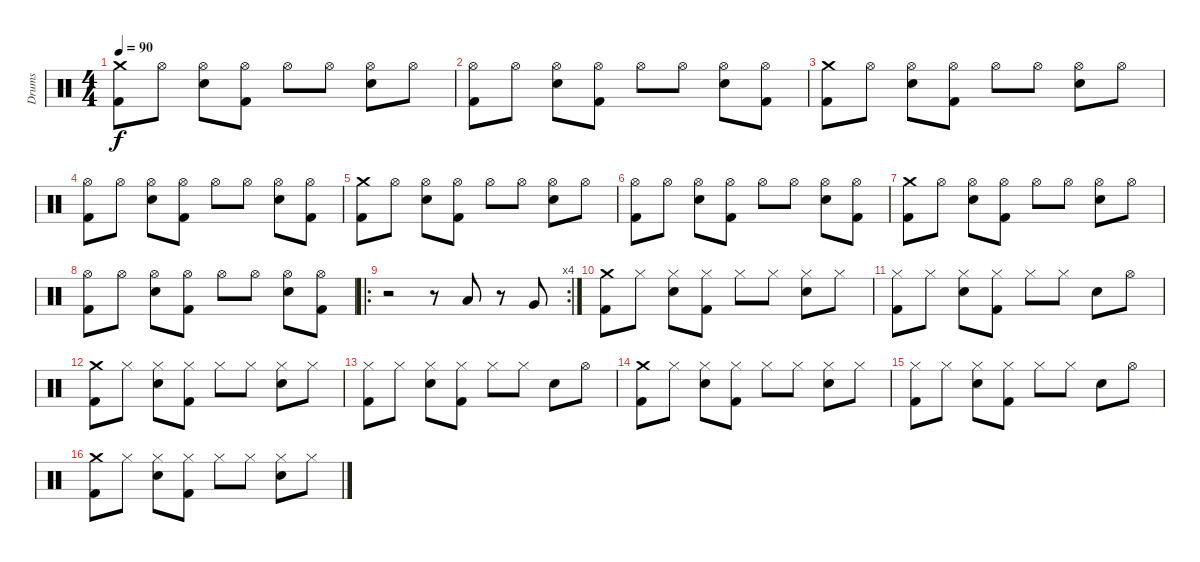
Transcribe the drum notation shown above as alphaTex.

\track ("Drums" "Drums") {instrument percussion}
\staff {score}
\articulation defaults
\ts (4 4)
\tempo 90
\clef neutral
\ks c
("Crash medium (hit)" "Kick (hit) 2").8{dy f} "Hi-Hat (open)".8 ("Hi-Hat (open)" "Snare (hit) 2").8 ("Hi-Hat (open)" "Kick (hit) 2").8 "Hi-Hat (open)".8 "Hi-Hat (open)".8 ("Hi-Hat (open)" "Snare (hit) 2").8 "Hi-Hat (open)".8 |
("Hi-Hat (open)" "Kick (hit) 2").8 "Hi-Hat (open)".8 ("Hi-Hat (open)" "Snare (hit) 2").8 ("Hi-Hat (open)" "Kick (hit) 2").8 "Hi-Hat (open)".8 "Hi-Hat (open)".8 ("Hi-Hat (open)" "Snare (hit) 2").8 ("Hi-Hat (open)" "Kick (hit) 2").8 |
("Crash medium (hit)" "Kick (hit) 2").8 "Hi-Hat (open)".8 ("Hi-Hat (open)" "Snare (hit) 2").8 ("Hi-Hat (open)" "Kick (hit) 2").8 "Hi-Hat (open)".8 "Hi-Hat (open)".8 ("Hi-Hat (open)" "Snare (hit) 2").8 "Hi-Hat (open)".8 |
("Hi-Hat (open)" "Kick (hit) 2").8 "Hi-Hat (open)".8 ("Hi-Hat (open)" "Snare (hit) 2").8 ("Hi-Hat (open)" "Kick (hit) 2").8 "Hi-Hat (open)".8 "Hi-Hat (open)".8 ("Hi-Hat (open)" "Snare (hit) 2").8 ("Hi-Hat (open)" "Kick (hit) 2").8 |
("Crash medium (hit)" "Kick (hit) 2").8 "Hi-Hat (open)".8 ("Hi-Hat (open)" "Snare (hit) 2").8 ("Hi-Hat (open)" "Kick (hit) 2").8 "Hi-Hat (open)".8 "Hi-Hat (open)".8 ("Hi-Hat (open)" "Snare (hit) 2").8 "Hi-Hat (open)".8 |
("Hi-Hat (open)" "Kick (hit) 2").8 "Hi-Hat (open)".8 ("Hi-Hat (open)" "Snare (hit) 2").8 ("Hi-Hat (open)" "Kick (hit) 2").8 "Hi-Hat (open)".8 "Hi-Hat (open)".8 ("Hi-Hat (open)" "Snare (hit) 2").8 ("Hi-Hat (open)" "Kick (hit) 2").8 |
("Crash medium (hit)" "Kick (hit) 2").8 "Hi-Hat (open)".8 ("Hi-Hat (open)" "Snare (hit) 2").8 ("Hi-Hat (open)" "Kick (hit) 2").8 "Hi-Hat (open)".8 "Hi-Hat (open)".8 ("Hi-Hat (open)" "Snare (hit) 2").8 "Hi-Hat (open)".8 |
("Hi-Hat (open)" "Kick (hit) 2").8 "Hi-Hat (open)".8 ("Hi-Hat (open)" "Snare (hit) 2").8 ("Hi-Hat (open)" "Kick (hit) 2").8 "Hi-Hat (open)".8 "Hi-Hat (open)".8 ("Hi-Hat (open)" "Snare (hit) 2").8 ("Hi-Hat (open)" "Kick (hit) 2").8 |
\ro
\rc 4
r.2 r.8 "Low Tom (hit)".8 r.8 "Very Low Tom (hit)".8 |
("Crash medium (hit)" "Kick (hit) 2").8 "Hi-Hat (closed)".8 ("Hi-Hat (closed)" "Snare (hit) 2").8 ("Hi-Hat (closed)" "Kick (hit) 2").8 "Hi-Hat (closed)".8 "Hi-Hat (closed)".8 ("Hi-Hat (closed)" "Snare (hit) 2").8 "Hi-Hat (closed)".8 |
("Hi-Hat (closed)" "Kick (hit) 2").8 "Hi-Hat (closed)".8 ("Hi-Hat (closed)" "Snare (hit) 2").8 ("Hi-Hat (closed)" "Kick (hit) 2").8 "Hi-Hat (closed)".8 "Hi-Hat (closed)".8 "Snare (hit) 2".8 "Hi-Hat (open)".8 |
("Crash medium (hit)" "Kick (hit) 2").8 "Hi-Hat (closed)".8 ("Hi-Hat (closed)" "Snare (hit) 2").8 ("Hi-Hat (closed)" "Kick (hit) 2").8 "Hi-Hat (closed)".8 "Hi-Hat (closed)".8 ("Hi-Hat (closed)" "Snare (hit) 2").8 "Hi-Hat (closed)".8 |
("Hi-Hat (closed)" "Kick (hit) 2").8 "Hi-Hat (closed)".8 ("Hi-Hat (closed)" "Snare (hit) 2").8 ("Hi-Hat (closed)" "Kick (hit) 2").8 "Hi-Hat (closed)".8 "Hi-Hat (closed)".8 "Snare (hit) 2".8 "Hi-Hat (open)".8 |
("Crash medium (hit)" "Kick (hit) 2").8 "Hi-Hat (closed)".8 ("Hi-Hat (closed)" "Snare (hit) 2").8 ("Hi-Hat (closed)" "Kick (hit) 2").8 "Hi-Hat (closed)".8 "Hi-Hat (closed)".8 ("Hi-Hat (closed)" "Snare (hit) 2").8 "Hi-Hat (closed)".8 |
("Hi-Hat (closed)" "Kick (hit) 2").8 "Hi-Hat (closed)".8 ("Hi-Hat (closed)" "Snare (hit) 2").8 ("Hi-Hat (closed)" "Kick (hit) 2").8 "Hi-Hat (closed)".8 "Hi-Hat (closed)".8 "Snare (hit) 2".8 "Hi-Hat (open)".8 |
("Crash medium (hit)" "Kick (hit) 2").8 "Hi-Hat (closed)".8 ("Hi-Hat (closed)" "Snare (hit) 2").8 ("Hi-Hat (closed)" "Kick (hit) 2").8 "Hi-Hat (closed)".8 "Hi-Hat (closed)".8 ("Hi-Hat (closed)" "Snare (hit) 2").8 "Hi-Hat (closed)".8
